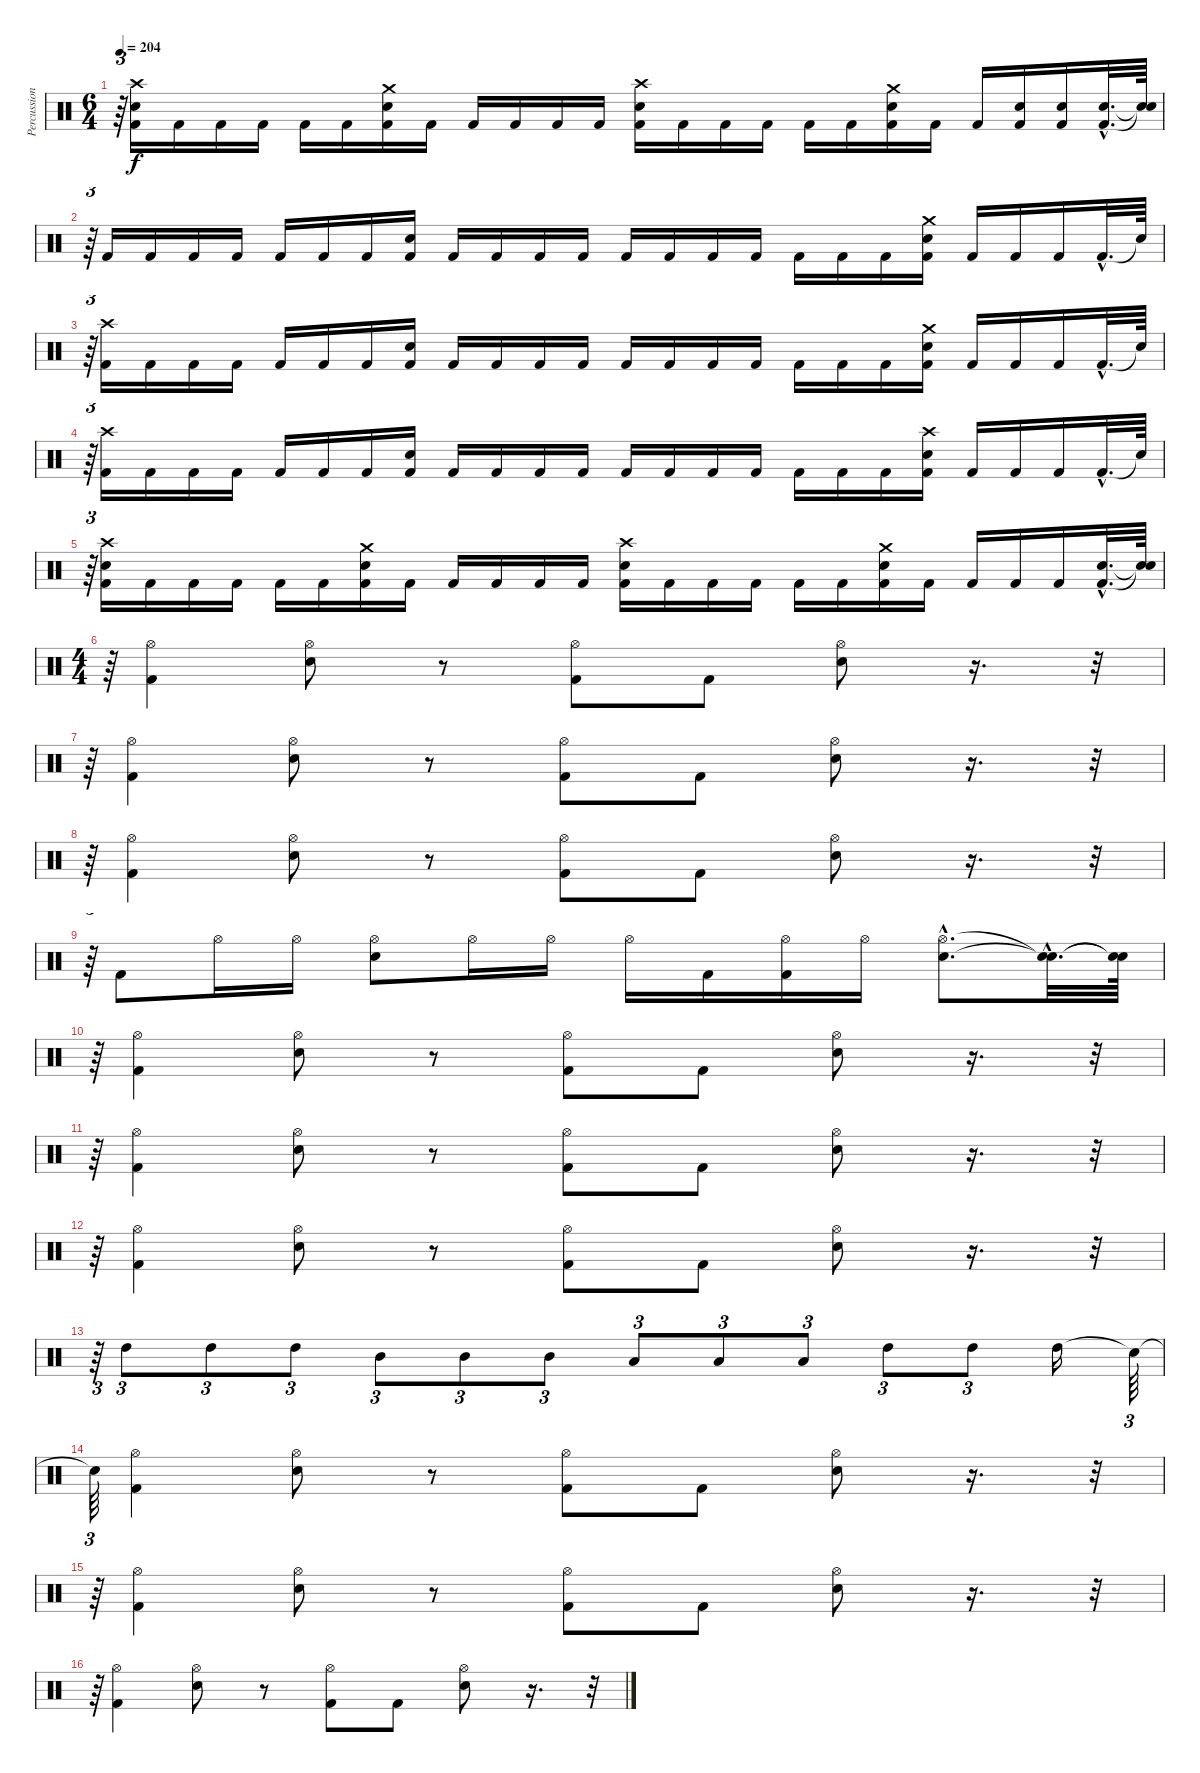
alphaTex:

\track ("Percussions" "Percussion") {instrument percussion}
\staff {score}
\articulation defaults
\ts (6 4)
\tempo 204
\clef neutral
\ks c
r.64{tu (3 2) dy f} ("Crash high (hit)" "Electric Snare (hit)" "Kick (hit) 2").16 "Kick (hit) 2".16 "Kick (hit) 2".16 "Kick (hit) 2".16 "Kick (hit) 2".16 "Kick (hit) 2".16 ("Crash medium (hit)" "Electric Snare (hit)" "Kick (hit) 2").16 "Kick (hit) 2".16 "Kick (hit) 2".16 "Kick (hit) 2".16 "Kick (hit) 2".16 "Kick (hit) 2".16 ("Crash high (hit)" "Electric Snare (hit)" "Kick (hit) 2").16 "Kick (hit) 2".16 "Kick (hit) 2".16 "Kick (hit) 2".16 "Kick (hit) 2".16 "Kick (hit) 2".16 ("Crash medium (hit)" "Electric Snare (hit)" "Kick (hit) 2").16 "Kick (hit) 2".16 "Kick (hit) 2".16 ("Electric Snare (hit)" "Kick (hit) 2").16 ("Electric Snare (hit)" "Kick (hit) 2").16 ("Electric Snare (hit)"{hac} "Kick (hit) 2"{hac}).32{d} ("Snare (hit)"{t} "Snare (hit)"{t}).64 |
r.64{tu (3 2)} "Kick (hit) 2".16 "Kick (hit) 2".16 "Kick (hit) 2".16 "Kick (hit) 2".16 "Kick (hit) 2".16 "Kick (hit) 2".16 "Kick (hit) 2".16 ("Electric Snare (hit)" "Kick (hit) 2").16 "Kick (hit) 2".16 "Kick (hit) 2".16 "Kick (hit) 2".16 "Kick (hit) 2".16 "Kick (hit) 2".16 "Kick (hit) 2".16 "Kick (hit) 2".16 "Kick (hit) 2".16 "Kick (hit) 2".16 "Kick (hit) 2".16 "Kick (hit) 2".16 ("Crash medium (hit)" "Electric Snare (hit)" "Kick (hit) 2").16 "Kick (hit) 2".16 "Kick (hit) 2".16 "Kick (hit) 2".16 "Kick (hit) 2"{hac}.32{d} "Snare (hit)"{t}.64 |
r.64{tu (3 2)} ("Crash high (hit)" "Kick (hit) 2").16 "Kick (hit) 2".16 "Kick (hit) 2".16 "Kick (hit) 2".16 "Kick (hit) 2".16 "Kick (hit) 2".16 "Kick (hit) 2".16 ("Electric Snare (hit)" "Kick (hit) 2").16 "Kick (hit) 2".16 "Kick (hit) 2".16 "Kick (hit) 2".16 "Kick (hit) 2".16 "Kick (hit) 2".16 "Kick (hit) 2".16 "Kick (hit) 2".16 "Kick (hit) 2".16 "Kick (hit) 2".16 "Kick (hit) 2".16 "Kick (hit) 2".16 ("Crash medium (hit)" "Electric Snare (hit)" "Kick (hit) 2").16 "Kick (hit) 2".16 "Kick (hit) 2".16 "Kick (hit) 2".16 "Kick (hit) 2"{hac}.32{d} "Snare (hit)"{t}.64 |
r.64{tu (3 2)} ("Crash high (hit)" "Kick (hit) 2").16 "Kick (hit) 2".16 "Kick (hit) 2".16 "Kick (hit) 2".16 "Kick (hit) 2".16 "Kick (hit) 2".16 "Kick (hit) 2".16 ("Electric Snare (hit)" "Kick (hit) 2").16 "Kick (hit) 2".16 "Kick (hit) 2".16 "Kick (hit) 2".16 "Kick (hit) 2".16 "Kick (hit) 2".16 "Kick (hit) 2".16 "Kick (hit) 2".16 "Kick (hit) 2".16 "Kick (hit) 2".16 "Kick (hit) 2".16 "Kick (hit) 2".16 ("Crash high (hit)" "Electric Snare (hit)" "Kick (hit) 2").16 "Kick (hit) 2".16 "Kick (hit) 2".16 "Kick (hit) 2".16 "Kick (hit) 2"{hac}.32{d} "Snare (hit)"{t}.64 |
r.64{tu (3 2)} ("Crash high (hit)" "Electric Snare (hit)" "Kick (hit) 2").16 "Kick (hit) 2".16 "Kick (hit) 2".16 "Kick (hit) 2".16 "Kick (hit) 2".16 "Kick (hit) 2".16 ("Crash medium (hit)" "Electric Snare (hit)" "Kick (hit) 2").16 "Kick (hit) 2".16 "Kick (hit) 2".16 "Kick (hit) 2".16 "Kick (hit) 2".16 "Kick (hit) 2".16 ("Crash high (hit)" "Electric Snare (hit)" "Kick (hit) 2").16 "Kick (hit) 2".16 "Kick (hit) 2".16 "Kick (hit) 2".16 "Kick (hit) 2".16 "Kick (hit) 2".16 ("Crash medium (hit)" "Electric Snare (hit)" "Kick (hit) 2").16 "Kick (hit) 2".16 "Kick (hit) 2".16 "Kick (hit) 2".16 "Kick (hit) 2".16 ("Electric Snare (hit)"{hac} "Kick (hit) 2"{hac}).32{d} ("Snare (hit)"{t} "Snare (hit)"{t}).64 |
\ts (4 4)
r.64{tu (3 2)} ("Hi-Hat (open)" "Kick (hit) 2").4 ("Hi-Hat (open)" "Electric Snare (hit)").8 r.8 ("Hi-Hat (open)" "Kick (hit) 2").8 "Kick (hit) 2".8 ("Hi-Hat (open)" "Electric Snare (hit)").8 r.16{d} r.32{tu (3 2)} |
r.64{tu (3 2)} ("Hi-Hat (open)" "Kick (hit) 2").4 ("Hi-Hat (open)" "Electric Snare (hit)").8 r.8 ("Hi-Hat (open)" "Kick (hit) 2").8 "Kick (hit) 2".8 ("Hi-Hat (open)" "Electric Snare (hit)").8 r.16{d} r.32{tu (3 2)} |
r.64{tu (3 2)} ("Hi-Hat (open)" "Kick (hit) 2").4 ("Hi-Hat (open)" "Electric Snare (hit)").8 r.8 ("Hi-Hat (open)" "Kick (hit) 2").8 "Kick (hit) 2".8 ("Hi-Hat (open)" "Electric Snare (hit)").8 r.16{d} r.32{tu (3 2)} |
r.64{tu (3 2)} "Kick (hit) 2".8 "Hi-Hat (open)".16 "Hi-Hat (open)".16 ("Hi-Hat (open)" "Electric Snare (hit)").8 "Hi-Hat (open)".16 "Hi-Hat (open)".16 "Hi-Hat (open)".16 "Kick (hit) 2".16 ("Hi-Hat (open)" "Kick (hit) 2").16 "Hi-Hat (open)".16 ("Hi-Hat (open)"{hac} "Electric Snare (hit)"{hac}).8{d} ("Snare (hit)"{hac t} "Snare (hit)"{hac t}).32{d} ("Snare (hit)"{t} "Snare (hit)"{t}).64 |
r.64{tu (3 2)} ("Hi-Hat (open)" "Kick (hit) 2").4 ("Hi-Hat (open)" "Electric Snare (hit)").8 r.8 ("Hi-Hat (open)" "Kick (hit) 2").8 "Kick (hit) 2".8 ("Hi-Hat (open)" "Electric Snare (hit)").8 r.16{d} r.32{tu (3 2)} |
r.64{tu (3 2)} ("Hi-Hat (open)" "Kick (hit) 2").4 ("Hi-Hat (open)" "Electric Snare (hit)").8 r.8 ("Hi-Hat (open)" "Kick (hit) 2").8 "Kick (hit) 2".8 ("Hi-Hat (open)" "Electric Snare (hit)").8 r.16{d} r.32{tu (3 2)} |
r.64{tu (3 2)} ("Hi-Hat (open)" "Kick (hit) 2").4 ("Hi-Hat (open)" "Electric Snare (hit)").8 r.8 ("Hi-Hat (open)" "Kick (hit) 2").8 "Kick (hit) 2".8 ("Hi-Hat (open)" "Electric Snare (hit)").8 r.16{d} r.32{tu (3 2)} |
r.64{tu (3 2)} "High Tom (hit)".8{tu (3 2)} "High Tom (hit)".8{tu (3 2)} "High Tom (hit)".8{tu (3 2)} "Mid Tom (hit)".8{tu (3 2)} "Mid Tom (hit)".8{tu (3 2)} "Mid Tom (hit)".8{tu (3 2)} "Low Floor Tom (hit)".8{tu (3 2)} "Low Floor Tom (hit)".8{tu (3 2)} "Low Floor Tom (hit)".8{tu (3 2)} "High Tom (hit)".8{tu (3 2)} "High Tom (hit)".8{tu (3 2)} "High Tom (hit)".16 "Snare (hit)"{t}.64{tu (3 2)} |
"Snare (hit)"{t}.64{tu (3 2)} ("Hi-Hat (open)" "Kick (hit) 2").4 ("Hi-Hat (open)" "Electric Snare (hit)").8 r.8 ("Hi-Hat (open)" "Kick (hit) 2").8 "Kick (hit) 2".8 ("Hi-Hat (open)" "Electric Snare (hit)").8 r.16{d} r.32{tu (3 2)} |
r.64{tu (3 2)} ("Hi-Hat (open)" "Kick (hit) 2").4 ("Hi-Hat (open)" "Electric Snare (hit)").8 r.8 ("Hi-Hat (open)" "Kick (hit) 2").8 "Kick (hit) 2".8 ("Hi-Hat (open)" "Electric Snare (hit)").8 r.16{d} r.32{tu (3 2)} |
r.64{tu (3 2)} ("Hi-Hat (open)" "Kick (hit) 2").4 ("Hi-Hat (open)" "Electric Snare (hit)").8 r.8 ("Hi-Hat (open)" "Kick (hit) 2").8 "Kick (hit) 2".8 ("Hi-Hat (open)" "Electric Snare (hit)").8 r.16{d} r.32{tu (3 2)}
